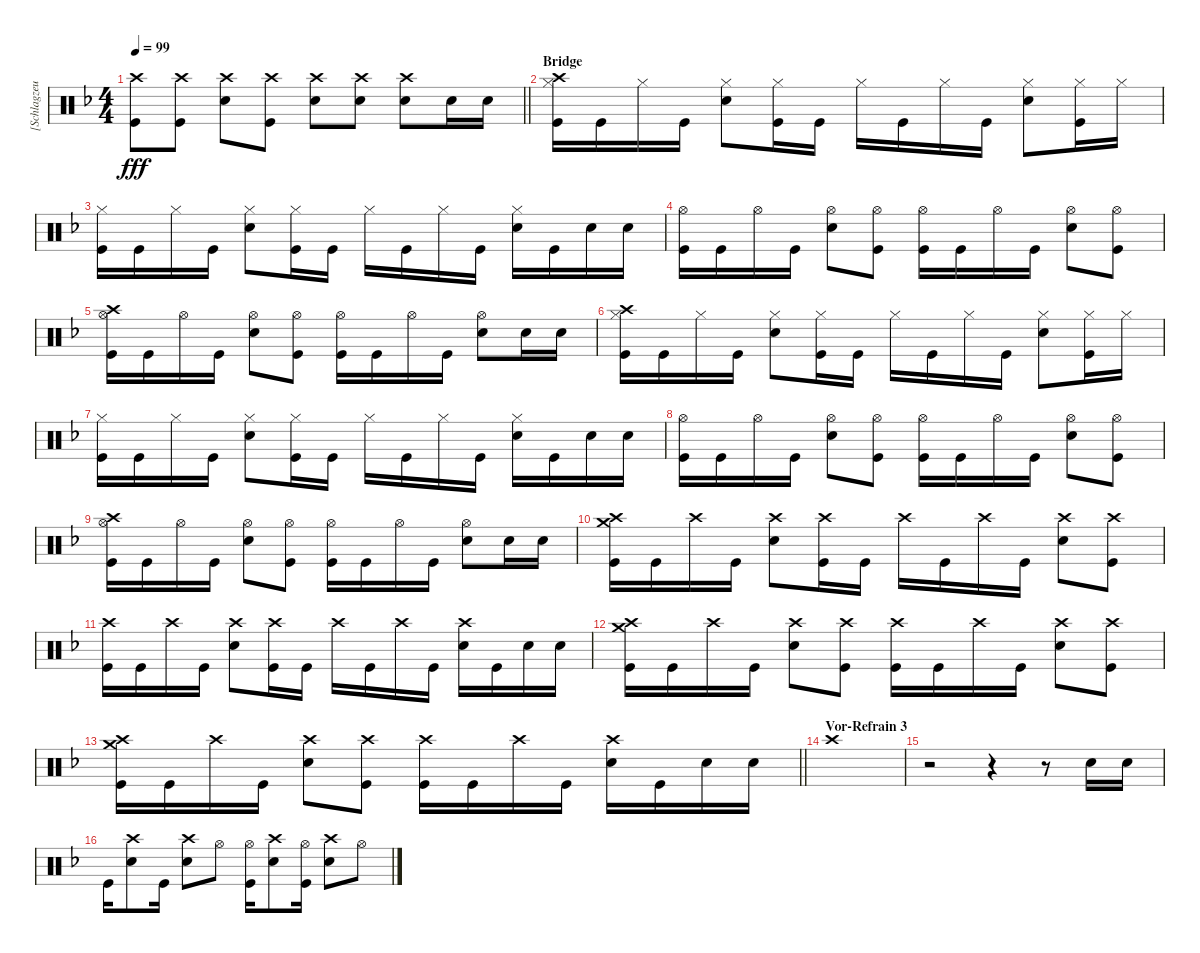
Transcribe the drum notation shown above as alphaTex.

\track ("[Schlagzeug]" "[Schlagzeu") {instrument percussion}
\staff {score}
\articulation defaults
\ts (4 4)
\tempo 99
\clef neutral
\barLineRight lightlight
\ks dminor
("Crash high (hit)" "Kick (hit)").8{dy fff} ("Crash high (hit)" "Kick (hit)").8 ("Crash high (hit)" "Electric Snare (hit)").8 ("Crash high (hit)" "Kick (hit)").8 ("Crash high (hit)" "Electric Snare (hit)").8 ("Crash high (hit)" "Electric Snare (hit)").8 ("Crash high (hit)" "Electric Snare (hit)").8 "Electric Snare (hit)".16 "Electric Snare (hit)".16 |
\section ("" "Bridge")
("Hi-Hat (closed)" "Crash high (hit)" "Kick (hit)").16 "Kick (hit)".16 "Hi-Hat (closed)".16 "Kick (hit)".16 ("Hi-Hat (closed)" "Electric Snare (hit)").8 ("Hi-Hat (closed)" "Kick (hit)").16 "Kick (hit)".16 "Hi-Hat (closed)".16 "Kick (hit)".16 "Hi-Hat (closed)".16 "Kick (hit)".16 ("Hi-Hat (closed)" "Electric Snare (hit)").8 ("Hi-Hat (closed)" "Kick (hit)").16 "Hi-Hat (closed)".16 |
("Hi-Hat (closed)" "Kick (hit)").16 "Kick (hit)".16 "Hi-Hat (closed)".16 "Kick (hit)".16 ("Hi-Hat (closed)" "Electric Snare (hit)").8 ("Hi-Hat (closed)" "Kick (hit)").16 "Kick (hit)".16 "Hi-Hat (closed)".16 "Kick (hit)".16 "Hi-Hat (closed)".16 "Kick (hit)".16 ("Hi-Hat (closed)" "Electric Snare (hit)").16 "Kick (hit)".16 "Electric Snare (hit)".16 "Electric Snare (hit)".16 |
("Kick (hit)" "Hi-Hat (open)").16 "Kick (hit)".16 "Hi-Hat (open)".16 "Kick (hit)".16 ("Electric Snare (hit)" "Hi-Hat (open)").8 ("Kick (hit)" "Hi-Hat (open)").8 ("Kick (hit)" "Hi-Hat (open)").16 "Kick (hit)".16 "Hi-Hat (open)".16 "Kick (hit)".16 ("Electric Snare (hit)" "Hi-Hat (open)").8 ("Kick (hit)" "Hi-Hat (open)").8 |
("Kick (hit)" "Hi-Hat (open)" "Crash high (hit)").16 "Kick (hit)".16 "Hi-Hat (open)".16 "Kick (hit)".16 ("Electric Snare (hit)" "Hi-Hat (open)").8 ("Kick (hit)" "Hi-Hat (open)").8 ("Kick (hit)" "Hi-Hat (open)").16 "Kick (hit)".16 "Hi-Hat (open)".16 "Kick (hit)".16 ("Electric Snare (hit)" "Hi-Hat (open)").8 "Electric Snare (hit)".16 "Electric Snare (hit)".16 |
("Hi-Hat (closed)" "Crash high (hit)" "Kick (hit)").16 "Kick (hit)".16 "Hi-Hat (closed)".16 "Kick (hit)".16 ("Hi-Hat (closed)" "Electric Snare (hit)").8 ("Hi-Hat (closed)" "Kick (hit)").16 "Kick (hit)".16 "Hi-Hat (closed)".16 "Kick (hit)".16 "Hi-Hat (closed)".16 "Kick (hit)".16 ("Hi-Hat (closed)" "Electric Snare (hit)").8 ("Hi-Hat (closed)" "Kick (hit)").16 "Hi-Hat (closed)".16 |
("Hi-Hat (closed)" "Kick (hit)").16 "Kick (hit)".16 "Hi-Hat (closed)".16 "Kick (hit)".16 ("Hi-Hat (closed)" "Electric Snare (hit)").8 ("Hi-Hat (closed)" "Kick (hit)").16 "Kick (hit)".16 "Hi-Hat (closed)".16 "Kick (hit)".16 "Hi-Hat (closed)".16 "Kick (hit)".16 ("Hi-Hat (closed)" "Electric Snare (hit)").16 "Kick (hit)".16 "Electric Snare (hit)".16 "Electric Snare (hit)".16 |
("Kick (hit)" "Hi-Hat (open)").16 "Kick (hit)".16 "Hi-Hat (open)".16 "Kick (hit)".16 ("Electric Snare (hit)" "Hi-Hat (open)").8 ("Kick (hit)" "Hi-Hat (open)").8 ("Kick (hit)" "Hi-Hat (open)").16 "Kick (hit)".16 "Hi-Hat (open)".16 "Kick (hit)".16 ("Electric Snare (hit)" "Hi-Hat (open)").8 ("Kick (hit)" "Hi-Hat (open)").8 |
("Kick (hit)" "Crash high (hit)" "Hi-Hat (open)").16 "Kick (hit)".16 "Hi-Hat (open)".16 "Kick (hit)".16 ("Electric Snare (hit)" "Hi-Hat (open)").8 ("Kick (hit)" "Hi-Hat (open)").8 ("Kick (hit)" "Hi-Hat (open)").16 "Kick (hit)".16 "Hi-Hat (open)".16 "Kick (hit)".16 ("Electric Snare (hit)" "Hi-Hat (open)").8 "Electric Snare (hit)".16 "Electric Snare (hit)".16 |
("Crash medium (hit)" "Crash high (hit)" "Kick (hit)").16 "Kick (hit)".16 "Crash high (hit)".16 "Kick (hit)".16 ("Crash high (hit)" "Electric Snare (hit)").8 ("Crash high (hit)" "Kick (hit)").16 "Kick (hit)".16 "Crash high (hit)".16 "Kick (hit)".16 "Crash high (hit)".16 "Kick (hit)".16 ("Crash high (hit)" "Electric Snare (hit)").8 ("Crash high (hit)" "Kick (hit)").8 |
("Crash high (hit)" "Kick (hit)").16 "Kick (hit)".16 "Crash high (hit)".16 "Kick (hit)".16 ("Crash high (hit)" "Electric Snare (hit)").8 ("Crash high (hit)" "Kick (hit)").16 "Kick (hit)".16 "Crash high (hit)".16 "Kick (hit)".16 "Crash high (hit)".16 "Kick (hit)".16 ("Crash high (hit)" "Electric Snare (hit)").16 "Kick (hit)".16 "Electric Snare (hit)".16 "Electric Snare (hit)".16 |
("Kick (hit)" "Crash high (hit)" "Crash medium (hit)").16 "Kick (hit)".16 "Crash high (hit)".16 "Kick (hit)".16 ("Electric Snare (hit)" "Crash high (hit)").8 ("Kick (hit)" "Crash high (hit)").8 ("Kick (hit)" "Crash high (hit)").16 "Kick (hit)".16 "Crash high (hit)".16 "Kick (hit)".16 ("Electric Snare (hit)" "Crash high (hit)").8 ("Kick (hit)" "Crash high (hit)").8 |
\barLineRight lightlight
("Kick (hit)" "Crash high (hit)" "Crash medium (hit)").16 "Kick (hit)".16 "Crash high (hit)".16 "Kick (hit)".16 ("Electric Snare (hit)" "Crash high (hit)").8 ("Kick (hit)" "Crash high (hit)").8 ("Kick (hit)" "Crash high (hit)").16 "Kick (hit)".16 "Crash high (hit)".16 "Kick (hit)".16 ("Crash high (hit)" "Electric Snare (hit)").16 "Kick (hit)".16 "Electric Snare (hit)".16 "Electric Snare (hit)".16 |
\section ("" "Vor-Refrain 3")
"Crash high (hit)".1 |
r.2 r.4 r.8 "Electric Snare (hit)".16 "Electric Snare (hit)".16 |
"Kick (hit)".16 ("Crash high (hit)" "Electric Snare (hit)").8 "Kick (hit)".16 ("Crash high (hit)" "Electric Snare (hit)").8 "Hi-Hat (open)".8 ("Hi-Hat (open)" "Kick (hit)").16 ("Crash high (hit)" "Electric Snare (hit)").8 ("Hi-Hat (open)" "Kick (hit)").16 ("Crash high (hit)" "Electric Snare (hit)").8 "Hi-Hat (open)".8
